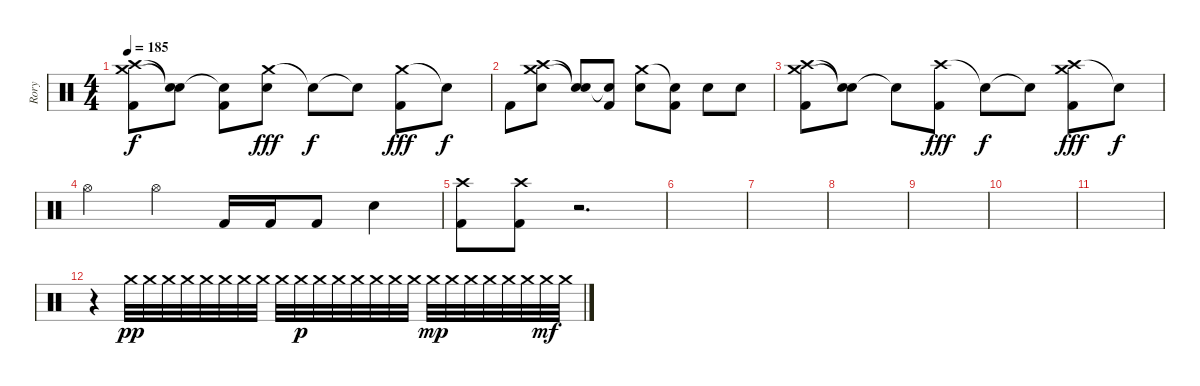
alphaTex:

\track ("Rory" "Rory") {instrument percussion}
\staff {score}
\articulation defaults
\ts (4 4)
\tempo 185
\clef neutral
\ks c
("Crash medium (hit)" "Crash high (hit)" "Kick (hit) 2").8{dy f} ("Snare (hit)"{t} "Snare (hit)"{t}).8 ("Snare (hit)"{t} "Kick (hit) 2").8 ("Crash medium (hit)" "Electric Snare (hit)").8{dy fff} "Snare (hit)"{t}.8{dy f} "Snare (hit)"{t}.8 ("Crash medium (hit)" "Kick (hit) 2").8{dy fff} "Snare (hit)"{t}.8{dy f} |
"Kick (hit) 2".8 ("Crash medium (hit)" "Crash high (hit)" "Electric Snare (hit)").8 ("Snare (hit)"{t} "Snare (hit)"{t}).8 ("Snare (hit)"{t} "Kick (hit) 2").8 ("Crash medium (hit)" "Electric Snare (hit)").8 ("Snare (hit)"{t} "Kick (hit) 2").8 "Electric Snare (hit)".8 "Electric Snare (hit)".8 |
("Crash medium (hit)" "Crash high (hit)" "Kick (hit) 2").8 ("Snare (hit)"{t} "Snare (hit)"{t}).8 "Snare (hit)"{t}.8 ("Crash high (hit)" "Kick (hit) 2").8{dy fff} "Snare (hit)"{t}.8{dy f} "Snare (hit)"{t}.8 ("Crash high (hit)" "Crash medium (hit)" "Kick (hit) 2").8{dy fff} "Snare (hit)"{t}.8{dy f} |
"Hi-Hat (open)".4 "Hi-Hat (open)".4 "Kick (hit) 2".16 "Kick (hit) 2".16 "Kick (hit) 2".8 "Electric Snare (hit)".4 |
("Crash high (hit)" "Kick (hit) 2").8 ("Crash high (hit)" "Kick (hit) 2").8 r.2{d} |
|
|
|
|
|
|
r.4 "Crash medium (hit)".32{dy pp} "Crash medium (hit)".32 "Crash medium (hit)".32 "Crash medium (hit)".32 "Crash medium (hit)".32 "Crash medium (hit)".32 "Crash medium (hit)".32 "Crash medium (hit)".32 "Crash medium (hit)".32 "Crash medium (hit)".32{dy p} "Crash medium (hit)".32 "Crash medium (hit)".32 "Crash medium (hit)".32 "Crash medium (hit)".32 "Crash medium (hit)".32 "Crash medium (hit)".32 "Crash medium (hit)".32{dy mp} "Crash medium (hit)".32 "Crash medium (hit)".32 "Crash medium (hit)".32 "Crash medium (hit)".32 "Crash medium (hit)".32 "Crash medium (hit)".32{dy mf} "Crash medium (hit)".32
